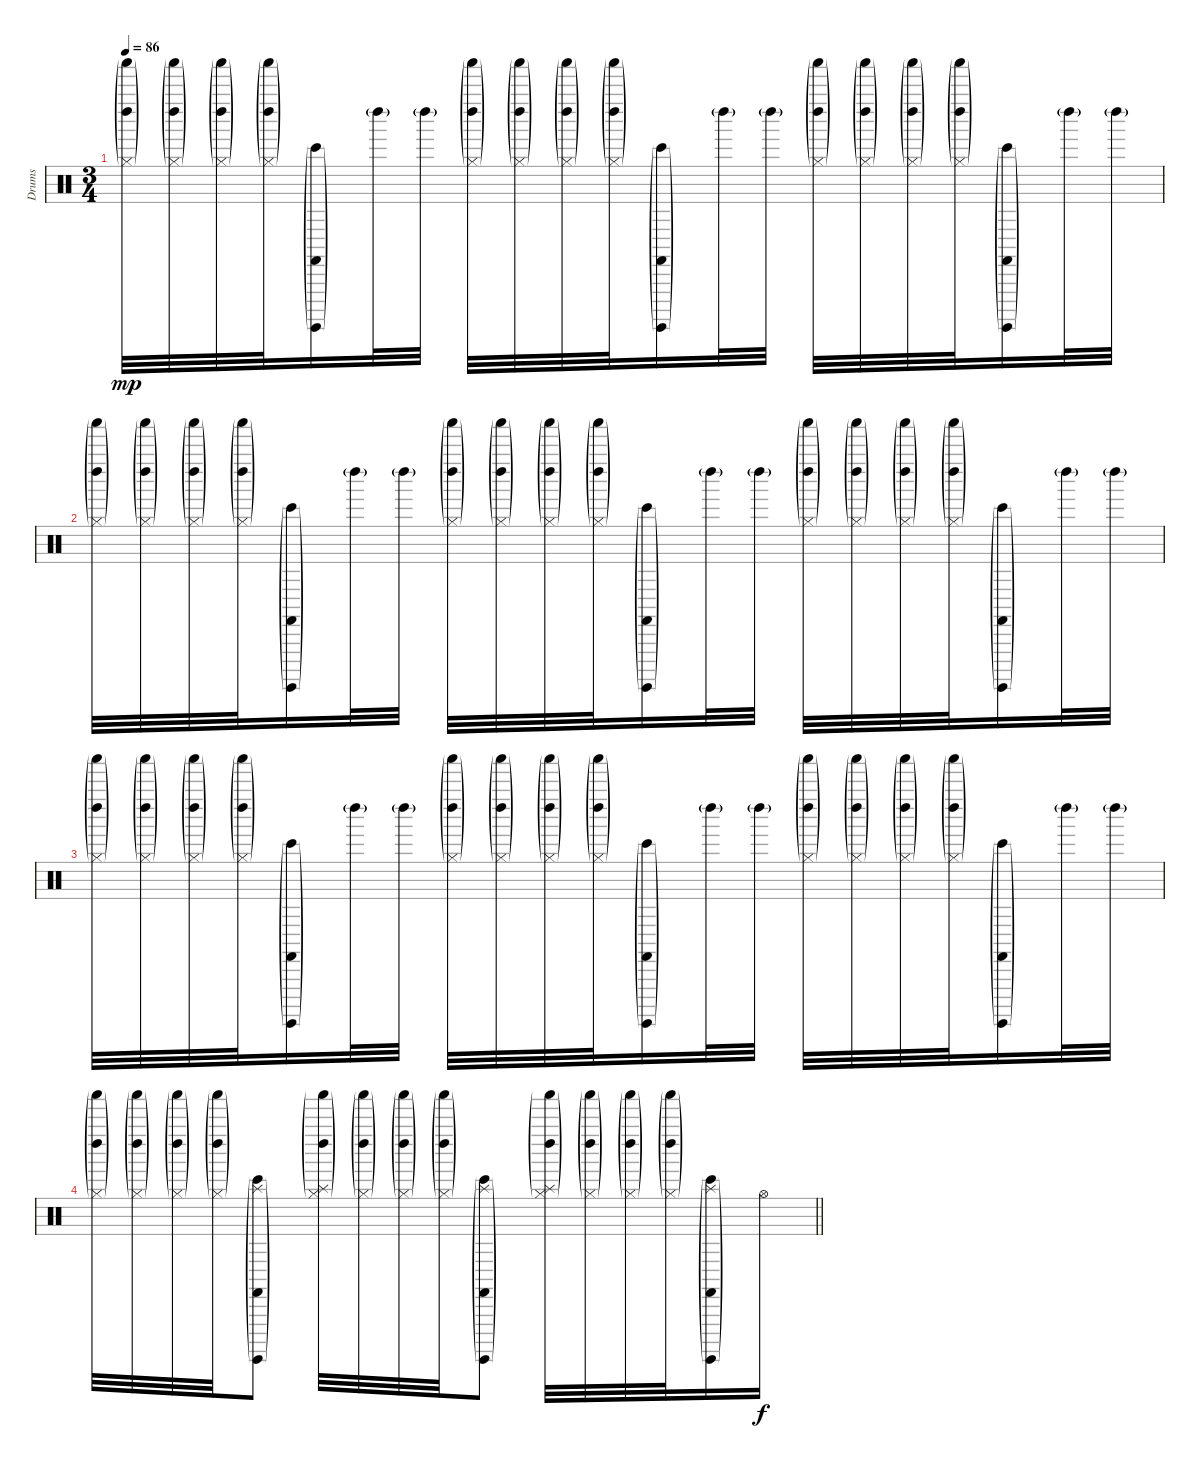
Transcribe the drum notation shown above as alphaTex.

\track ("Drums" "Drums") {instrument percussion}
\staff {score}
\articulation defaults
\ts (3 4)
\tempo 86
\clef neutral
\ks c
("Shaker (hit)"{g} "Left Maraca (hit)"{g} "Hi-Hat (closed)"{g}).32{dy mp} ("Shaker (hit)"{g} "Left Maraca (hit)"{g} "Hi-Hat (closed)"{g}).32 ("Shaker (hit)"{g} "Left Maraca (hit)"{g} "Hi-Hat (closed)"{g}).32 ("Shaker (hit)"{g} "Left Maraca (hit)"{g} "Hi-Hat (closed)"{g}).32 ("Castanets (hit)"{g} "Surdo (hit)"{g} "Bongo High (hit)"{g}).16 "Left Maraca (hit)"{g}.32 "Left Maraca (hit)"{g}.32 ("Shaker (hit)"{g} "Left Maraca (hit)"{g} "Hi-Hat (closed)"{g}).32 ("Shaker (hit)"{g} "Left Maraca (hit)"{g} "Hi-Hat (closed)"{g}).32 ("Shaker (hit)"{g} "Left Maraca (hit)"{g} "Hi-Hat (closed)"{g}).32 ("Shaker (hit)"{g} "Left Maraca (hit)"{g} "Hi-Hat (closed)"{g}).32 ("Castanets (hit)"{g} "Surdo (hit)"{g} "Bongo High (hit)"{g}).16 "Left Maraca (hit)"{g}.32 "Left Maraca (hit)"{g}.32 ("Shaker (hit)"{g} "Left Maraca (hit)"{g} "Hi-Hat (closed)"{g}).32 ("Shaker (hit)"{g} "Left Maraca (hit)"{g} "Hi-Hat (closed)"{g}).32 ("Shaker (hit)"{g} "Left Maraca (hit)"{g} "Hi-Hat (closed)"{g}).32 ("Shaker (hit)"{g} "Left Maraca (hit)"{g} "Hi-Hat (closed)"{g}).32 ("Castanets (hit)"{g} "Surdo (hit)"{g} "Bongo High (hit)"{g}).16 "Left Maraca (hit)"{g}.32 "Left Maraca (hit)"{g}.32 |
("Shaker (hit)"{g} "Left Maraca (hit)"{g} "Hi-Hat (closed)"{g}).32 ("Shaker (hit)"{g} "Left Maraca (hit)"{g} "Hi-Hat (closed)"{g}).32 ("Shaker (hit)"{g} "Left Maraca (hit)"{g} "Hi-Hat (closed)"{g}).32 ("Shaker (hit)"{g} "Left Maraca (hit)"{g} "Hi-Hat (closed)"{g}).32 ("Castanets (hit)"{g} "Surdo (hit)"{g} "Bongo High (hit)"{g}).16 "Left Maraca (hit)"{g}.32 "Left Maraca (hit)"{g}.32 ("Shaker (hit)"{g} "Left Maraca (hit)"{g} "Hi-Hat (closed)"{g}).32 ("Shaker (hit)"{g} "Left Maraca (hit)"{g} "Hi-Hat (closed)"{g}).32 ("Shaker (hit)"{g} "Left Maraca (hit)"{g} "Hi-Hat (closed)"{g}).32 ("Shaker (hit)"{g} "Left Maraca (hit)"{g} "Hi-Hat (closed)"{g}).32 ("Castanets (hit)"{g} "Surdo (hit)"{g} "Bongo High (hit)"{g}).16 "Left Maraca (hit)"{g}.32 "Left Maraca (hit)"{g}.32 ("Shaker (hit)"{g} "Left Maraca (hit)"{g} "Hi-Hat (closed)"{g}).32 ("Shaker (hit)"{g} "Left Maraca (hit)"{g} "Hi-Hat (closed)"{g}).32 ("Shaker (hit)"{g} "Left Maraca (hit)"{g} "Hi-Hat (closed)"{g}).32 ("Shaker (hit)"{g} "Left Maraca (hit)"{g} "Hi-Hat (closed)"{g}).32 ("Castanets (hit)"{g} "Surdo (hit)"{g} "Bongo High (hit)"{g}).16 "Left Maraca (hit)"{g}.32 "Left Maraca (hit)"{g}.32 |
("Shaker (hit)"{g} "Left Maraca (hit)"{g} "Hi-Hat (closed)"{g}).32 ("Shaker (hit)"{g} "Left Maraca (hit)"{g} "Hi-Hat (closed)"{g}).32 ("Shaker (hit)"{g} "Left Maraca (hit)"{g} "Hi-Hat (closed)"{g}).32 ("Shaker (hit)"{g} "Left Maraca (hit)"{g} "Hi-Hat (closed)"{g}).32 ("Castanets (hit)"{g} "Surdo (hit)"{g} "Bongo High (hit)"{g}).16 "Left Maraca (hit)"{g}.32 "Left Maraca (hit)"{g}.32 ("Shaker (hit)"{g} "Left Maraca (hit)"{g} "Hi-Hat (closed)"{g}).32 ("Shaker (hit)"{g} "Left Maraca (hit)"{g} "Hi-Hat (closed)"{g}).32 ("Shaker (hit)"{g} "Left Maraca (hit)"{g} "Hi-Hat (closed)"{g}).32 ("Shaker (hit)"{g} "Left Maraca (hit)"{g} "Hi-Hat (closed)"{g}).32 ("Castanets (hit)"{g} "Surdo (hit)"{g} "Bongo High (hit)"{g}).16 "Left Maraca (hit)"{g}.32 "Left Maraca (hit)"{g}.32 ("Shaker (hit)"{g} "Left Maraca (hit)"{g} "Hi-Hat (closed)"{g}).32 ("Shaker (hit)"{g} "Left Maraca (hit)"{g} "Hi-Hat (closed)"{g}).32 ("Shaker (hit)"{g} "Left Maraca (hit)"{g} "Hi-Hat (closed)"{g}).32 ("Shaker (hit)"{g} "Left Maraca (hit)"{g} "Hi-Hat (closed)"{g}).32 ("Castanets (hit)"{g} "Surdo (hit)"{g} "Bongo High (hit)"{g}).16 "Left Maraca (hit)"{g}.32 "Left Maraca (hit)"{g}.32 |
\barLineRight lightlight
("Hi-Hat (closed)"{g} "Left Maraca (hit)"{g} "Shaker (hit)"{g}).32 ("Hi-Hat (closed)"{g} "Left Maraca (hit)"{g} "Shaker (hit)"{g}).32 ("Hi-Hat (closed)"{g} "Left Maraca (hit)"{g} "Shaker (hit)"{g}).32 ("Hi-Hat (closed)"{g} "Left Maraca (hit)"{g} "Shaker (hit)"{g}).32 ("Splash (hit)"{g} "Castanets (hit)"{g} "Surdo (hit)"{g} "Bongo High (hit)"{g}).8 ("Splash (hit)"{g} "Hi-Hat (closed)"{g} "Left Maraca (hit)"{g} "Shaker (hit)"{g}).32 ("Hi-Hat (closed)"{g} "Left Maraca (hit)"{g} "Shaker (hit)"{g}).32 ("Hi-Hat (closed)"{g} "Left Maraca (hit)"{g} "Shaker (hit)"{g}).32 ("Hi-Hat (closed)"{g} "Left Maraca (hit)"{g} "Shaker (hit)"{g}).32 ("Splash (hit)"{g} "Castanets (hit)"{g} "Surdo (hit)"{g} "Bongo High (hit)"{g}).8 ("Splash (hit)"{g} "Hi-Hat (closed)"{g} "Left Maraca (hit)"{g} "Shaker (hit)"{g}).32 ("Hi-Hat (closed)"{g} "Left Maraca (hit)"{g} "Shaker (hit)"{g}).32 ("Hi-Hat (closed)"{g} "Left Maraca (hit)"{g} "Shaker (hit)"{g}).32 ("Hi-Hat (closed)"{g} "Left Maraca (hit)"{g} "Shaker (hit)"{g}).32 ("Splash (hit)"{g} "Castanets (hit)"{g} "Surdo (hit)"{g} "Bongo High (hit)"{g}).16 "Hi-Hat (open)".16{dy f}
